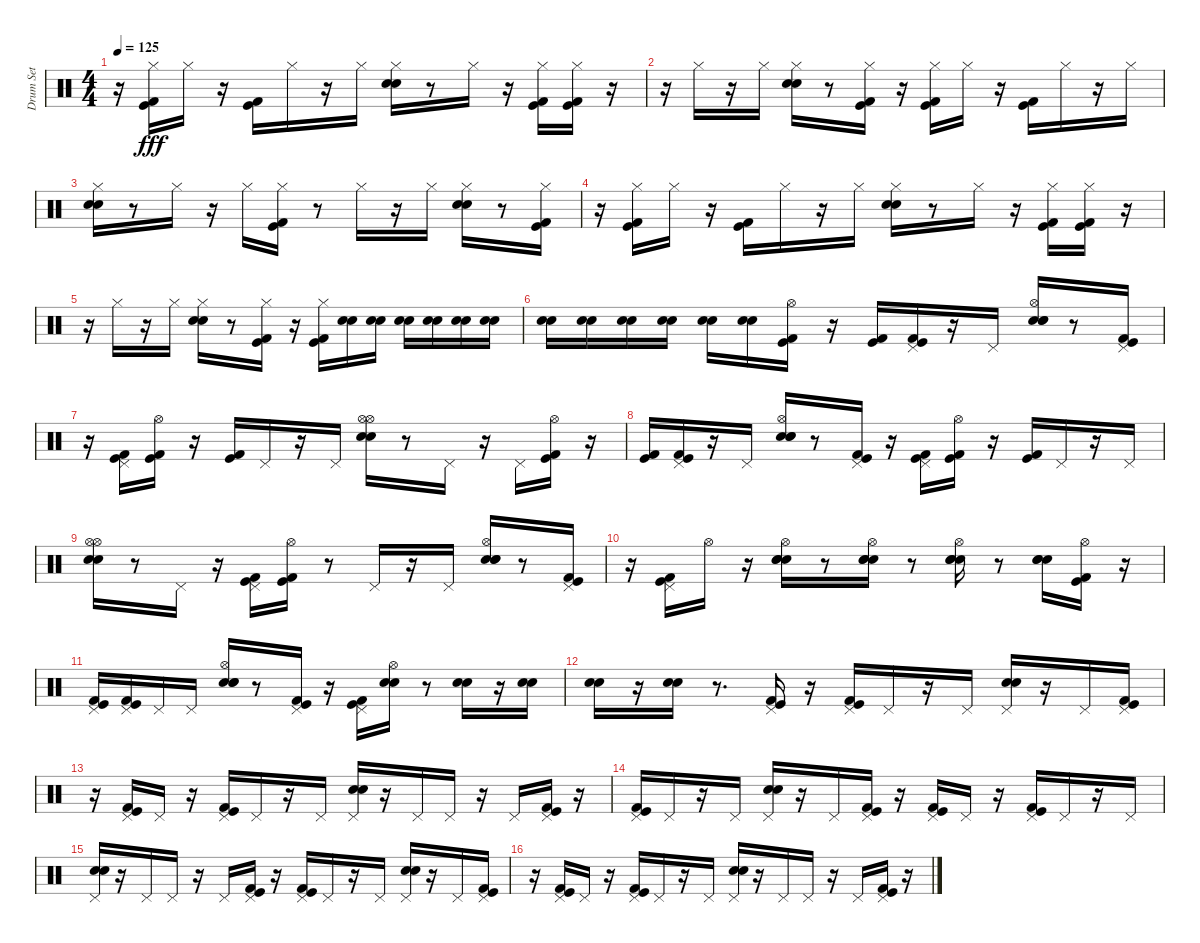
\track ("Drum Set" "Drum Set") {instrument percussion}
\staff {score}
\articulation defaults
\ts (4 4)
\tempo 125
\clef neutral
\ks c
r.16{dy fff} ("Hi-Hat (closed)" "Kick (hit)" "Kick (hit) 2").16 "Hi-Hat (closed)".16 r.16 ("Kick (hit) 2" "Kick (hit)").16 "Hi-Hat (closed)".16 r.16 "Hi-Hat (closed)".16 ("Hi-Hat (closed)" "Electric Snare (hit)" "Snare (hit) 2").16 r.8 "Hi-Hat (closed)".16 r.16 ("Hi-Hat (closed)" "Kick (hit)" "Kick (hit) 2").16 ("Kick (hit)" "Kick (hit) 2" "Hi-Hat (closed)").16 r.16 |
r.16 "Hi-Hat (closed)".16 r.16 "Hi-Hat (closed)".16 ("Hi-Hat (closed)" "Electric Snare (hit)" "Snare (hit) 2").16 r.8 ("Hi-Hat (closed)" "Kick (hit) 2" "Kick (hit)").16 r.16 ("Hi-Hat (closed)" "Kick (hit) 2" "Kick (hit)").16 "Hi-Hat (closed)".16 r.16 ("Kick (hit)" "Kick (hit) 2").16 "Hi-Hat (closed)".16 r.16 "Hi-Hat (closed)".16 |
("Hi-Hat (closed)" "Electric Snare (hit)" "Snare (hit) 2").16 r.8 "Hi-Hat (closed)".16 r.16 "Hi-Hat (closed)".16 ("Hi-Hat (closed)" "Kick (hit) 2" "Kick (hit)").16 r.8 "Hi-Hat (closed)".16 r.16 "Hi-Hat (closed)".16 ("Hi-Hat (closed)" "Electric Snare (hit)" "Snare (hit) 2").16 r.8 ("Hi-Hat (closed)" "Kick (hit) 2" "Kick (hit)").16 |
r.16 ("Hi-Hat (closed)" "Kick (hit)" "Kick (hit) 2").16 "Hi-Hat (closed)".16 r.16 ("Kick (hit) 2" "Kick (hit)").16 "Hi-Hat (closed)".16 r.16 "Hi-Hat (closed)".16 ("Hi-Hat (closed)" "Electric Snare (hit)" "Snare (hit) 2").16 r.8 "Hi-Hat (closed)".16 r.16 ("Hi-Hat (closed)" "Kick (hit)" "Kick (hit) 2").16 ("Hi-Hat (closed)" "Kick (hit)" "Kick (hit) 2").16 r.16 |
r.16 "Hi-Hat (closed)".16 r.16 "Hi-Hat (closed)".16 ("Hi-Hat (closed)" "Electric Snare (hit)" "Snare (hit) 2").16 r.8 ("Hi-Hat (closed)" "Kick (hit) 2" "Kick (hit)").16 r.16 ("Hi-Hat (closed)" "Kick (hit)" "Kick (hit) 2").16 ("Snare (hit) 2" "Electric Snare (hit)").16 ("Snare (hit) 2" "Electric Snare (hit)").16 ("Electric Snare (hit)" "Snare (hit) 2").16 ("Snare (hit) 2" "Electric Snare (hit)").16 ("Electric Snare (hit)" "Snare (hit) 2").16 ("Electric Snare (hit)" "Snare (hit) 2").16 |
("Electric Snare (hit)" "Snare (hit) 2").16 ("Electric Snare (hit)" "Snare (hit) 2").16 ("Electric Snare (hit)" "Snare (hit) 2").16 ("Snare (hit) 2" "Electric Snare (hit)").16 ("Snare (hit) 2" "Electric Snare (hit)").16 ("Snare (hit) 2" "Electric Snare (hit)").16 ("Hi-Hat (open)" "Kick (hit)" "Kick (hit) 2").16 r.16 ("Kick (hit)" "Kick (hit) 2").16 ("Pedal Hi-Hat (hit)" "Kick (hit) 2" "Kick (hit)").16 r.16 "Pedal Hi-Hat (hit)".16 ("Electric Snare (hit)" "Hand Clap (hit)" "Snare (hit) 2" "Hi-Hat (open)").16 r.8 ("Kick (hit) 2" "Kick (hit)" "Pedal Hi-Hat (hit)").16 |
r.16 ("Kick (hit)" "Kick (hit) 2" "Pedal Hi-Hat (hit)").16 ("Kick (hit) 2" "Kick (hit)" "Hi-Hat (open)").16 r.16 ("Kick (hit) 2" "Kick (hit)").16 "Pedal Hi-Hat (hit)".16 r.16 "Pedal Hi-Hat (hit)".16 ("Snare (hit) 2" "Electric Snare (hit)" "Hi-Hat (open)" "Hi-Hat (open)").16 r.8 "Pedal Hi-Hat (hit)".16 r.16 "Pedal Hi-Hat (hit)".16 ("Hi-Hat (open)" "Kick (hit)" "Kick (hit) 2").16 r.16 |
("Kick (hit)" "Kick (hit) 2").16 ("Pedal Hi-Hat (hit)" "Kick (hit) 2" "Kick (hit)").16 r.16 "Pedal Hi-Hat (hit)".16 ("Hi-Hat (open)" "Electric Snare (hit)" "Hand Clap (hit)" "Snare (hit) 2").16 r.8 ("Kick (hit) 2" "Kick (hit)" "Pedal Hi-Hat (hit)").16 r.16 ("Pedal Hi-Hat (hit)" "Kick (hit)" "Kick (hit) 2").16 ("Hi-Hat (open)" "Kick (hit) 2" "Kick (hit)").16 r.16 ("Kick (hit) 2" "Kick (hit)").16 "Pedal Hi-Hat (hit)".16 r.16 "Pedal Hi-Hat (hit)".16 |
("Hi-Hat (open)" "Snare (hit) 2" "Electric Snare (hit)" "Hi-Hat (open)").16 r.8 "Pedal Hi-Hat (hit)".16 r.16 ("Kick (hit) 2" "Kick (hit)" "Pedal Hi-Hat (hit)").16 ("Hi-Hat (open)" "Kick (hit) 2" "Kick (hit)").16 r.8 "Pedal Hi-Hat (hit)".16 r.16 "Pedal Hi-Hat (hit)".16 ("Hi-Hat (open)" "Electric Snare (hit)" "Hand Clap (hit)" "Snare (hit) 2").16 r.8 ("Kick (hit) 2" "Kick (hit)" "Pedal Hi-Hat (hit)").16 |
r.16 ("Pedal Hi-Hat (hit)" "Kick (hit)" "Kick (hit) 2").16 "Hi-Hat (open)".16 r.16 ("Hi-Hat (open)" "Electric Snare (hit)" "Hand Clap (hit)" "Snare (hit) 2").16 r.8 ("Hi-Hat (open)" "Snare (hit) 2" "Hand Clap (hit)" "Electric Snare (hit)").16 r.8 ("Hi-Hat (open)" "Electric Snare (hit)" "Hand Clap (hit)" "Snare (hit) 2").16 r.8 ("Snare (hit) 2" "Hand Clap (hit)" "Electric Snare (hit)").16 ("Hi-Hat (open)" "Kick (hit)" "Kick (hit) 2").16 r.16 |
("Pedal Hi-Hat (hit)" "Kick (hit)" "Kick (hit) 2").16 ("Pedal Hi-Hat (hit)" "Kick (hit) 2" "Kick (hit)").16 "Pedal Hi-Hat (hit)".16 "Pedal Hi-Hat (hit)".16 ("Hi-Hat (open)" "Electric Snare (hit)" "Hand Clap (hit)" "Snare (hit) 2").16 r.8 ("Kick (hit) 2" "Kick (hit)" "Pedal Hi-Hat (hit)").16 r.16 ("Kick (hit)" "Kick (hit) 2" "Pedal Hi-Hat (hit)").16 ("Electric Snare (hit)" "Snare (hit) 2" "Hi-Hat (open)").16 r.8 ("Snare (hit) 2" "Electric Snare (hit)").16 r.16 ("Snare (hit) 2" "Electric Snare (hit)").16 |
("Electric Snare (hit)" "Snare (hit) 2").16 r.16 ("Electric Snare (hit)" "Snare (hit) 2").16 r.8{d} ("Pedal Hi-Hat (hit)" "Kick (hit) 2" "Kick (hit)").16 r.16 ("Kick (hit)" "Kick (hit) 2" "Pedal Hi-Hat (hit)").16 "Pedal Hi-Hat (hit)".16 r.16 "Pedal Hi-Hat (hit)".16 ("Electric Snare (hit)" "Snare (hit) 2" "Pedal Hi-Hat (hit)").16 r.16 "Pedal Hi-Hat (hit)".16 ("Kick (hit)" "Kick (hit) 2" "Pedal Hi-Hat (hit)").16 |
r.16 ("Pedal Hi-Hat (hit)" "Kick (hit) 2" "Kick (hit)").16 "Pedal Hi-Hat (hit)".16 r.16 ("Kick (hit)" "Kick (hit) 2" "Pedal Hi-Hat (hit)").16 "Pedal Hi-Hat (hit)".16 r.16 "Pedal Hi-Hat (hit)".16 ("Snare (hit) 2" "Electric Snare (hit)" "Pedal Hi-Hat (hit)").16 r.16 "Pedal Hi-Hat (hit)".16 "Pedal Hi-Hat (hit)".16 r.16 "Pedal Hi-Hat (hit)".16 ("Pedal Hi-Hat (hit)" "Kick (hit) 2" "Kick (hit)").16 r.16 |
("Kick (hit)" "Kick (hit) 2" "Pedal Hi-Hat (hit)").16 "Pedal Hi-Hat (hit)".16 r.16 "Pedal Hi-Hat (hit)".16 ("Electric Snare (hit)" "Snare (hit) 2" "Pedal Hi-Hat (hit)").16 r.16 "Pedal Hi-Hat (hit)".16 ("Kick (hit)" "Kick (hit) 2" "Pedal Hi-Hat (hit)").16 r.16 ("Kick (hit) 2" "Kick (hit)" "Pedal Hi-Hat (hit)").16 "Pedal Hi-Hat (hit)".16 r.16 ("Kick (hit)" "Kick (hit) 2" "Pedal Hi-Hat (hit)").16 "Pedal Hi-Hat (hit)".16 r.16 "Pedal Hi-Hat (hit)".16 |
("Snare (hit) 2" "Electric Snare (hit)" "Pedal Hi-Hat (hit)").16 r.16 "Pedal Hi-Hat (hit)".16 "Pedal Hi-Hat (hit)".16 r.16 "Pedal Hi-Hat (hit)".16 ("Pedal Hi-Hat (hit)" "Kick (hit) 2" "Kick (hit)").16 r.16 ("Kick (hit)" "Kick (hit) 2" "Pedal Hi-Hat (hit)").16 "Pedal Hi-Hat (hit)".16 r.16 "Pedal Hi-Hat (hit)".16 ("Electric Snare (hit)" "Snare (hit) 2" "Pedal Hi-Hat (hit)").16 r.16 "Pedal Hi-Hat (hit)".16 ("Kick (hit)" "Kick (hit) 2" "Pedal Hi-Hat (hit)").16 |
r.16 ("Kick (hit) 2" "Kick (hit)" "Pedal Hi-Hat (hit)").16 "Pedal Hi-Hat (hit)".16 r.16 ("Kick (hit)" "Kick (hit) 2" "Pedal Hi-Hat (hit)").16 "Pedal Hi-Hat (hit)".16 r.16 "Pedal Hi-Hat (hit)".16 ("Snare (hit) 2" "Electric Snare (hit)" "Pedal Hi-Hat (hit)").16 r.16 "Pedal Hi-Hat (hit)".16 "Pedal Hi-Hat (hit)".16 r.16 "Pedal Hi-Hat (hit)".16 ("Pedal Hi-Hat (hit)" "Kick (hit) 2" "Kick (hit)").16 r.16
